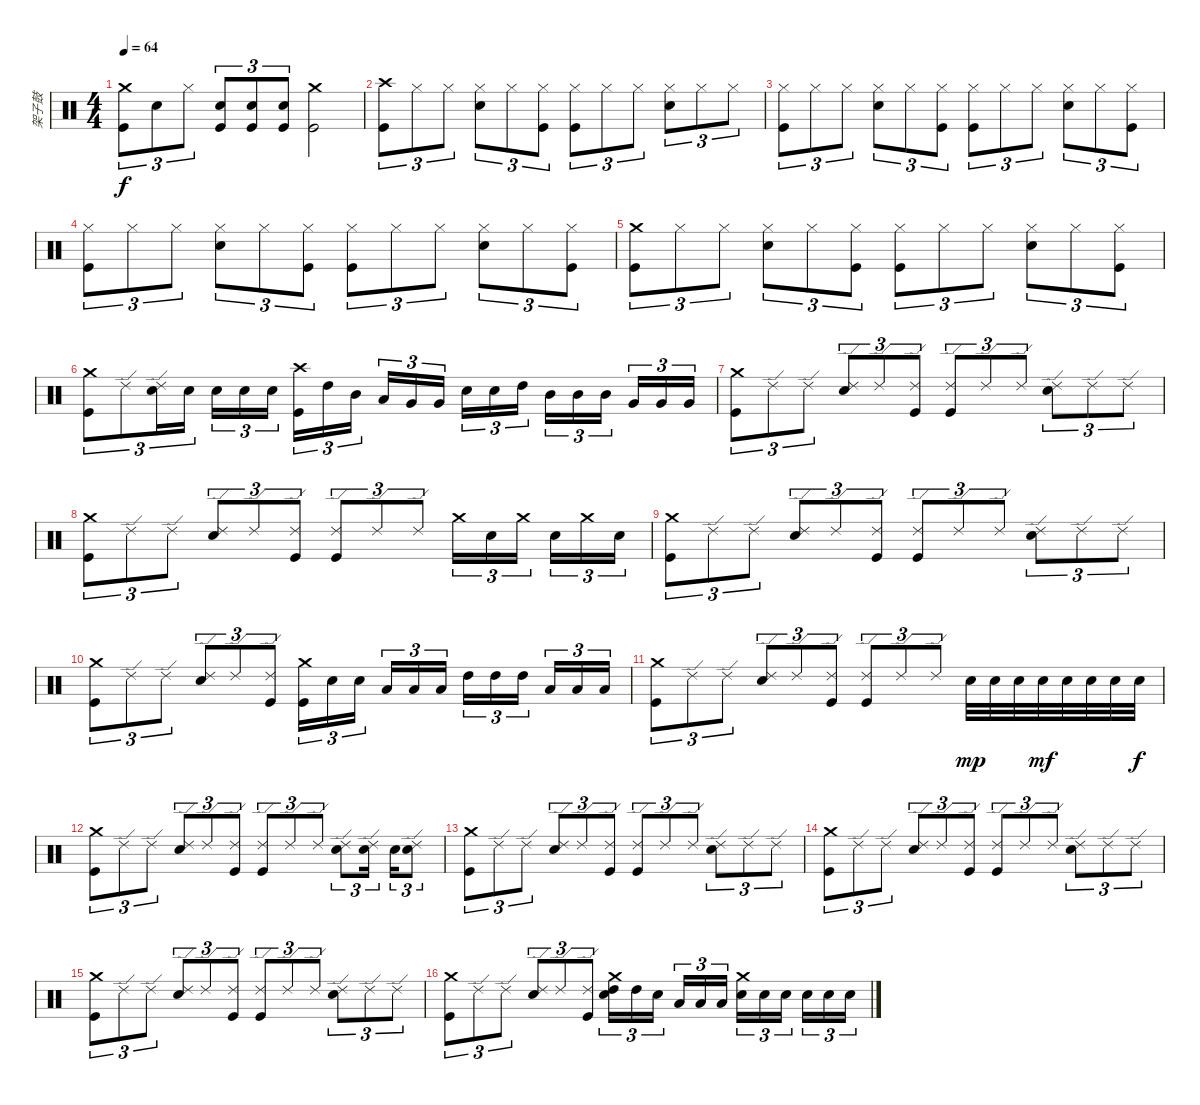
\track ("架子鼓" "架子鼓") {instrument percussion}
\staff {score}
\articulation defaults
\ts (4 4)
\tempo 64
\clef neutral
\ks c
("Kick (hit)" "Crash medium (hit)").8{tu (3 2) dy f} "Electric Snare (hit)".8{tu (3 2)} "Hi-Hat (closed)".8{tu (3 2)} ("Kick (hit)" "Electric Snare (hit)").8{tu (3 2)} ("Kick (hit)" "Electric Snare (hit)").8{tu (3 2)} ("Kick (hit)" "Electric Snare (hit)").8{tu (3 2)} ("Crash medium (hit)" "Kick (hit)").2 |
("Kick (hit)" "Crash high (hit)").8{tu (3 2)} "Hi-Hat (closed)".8{tu (3 2)} "Hi-Hat (closed)".8{tu (3 2)} ("Electric Snare (hit)" "Hi-Hat (closed)").8{tu (3 2)} "Hi-Hat (closed)".8{tu (3 2)} ("Kick (hit)" "Hi-Hat (closed)").8{tu (3 2)} ("Hi-Hat (closed)" "Kick (hit)").8{tu (3 2)} "Hi-Hat (closed)".8{tu (3 2)} "Hi-Hat (closed)".8{tu (3 2)} ("Hi-Hat (closed)" "Electric Snare (hit)").8{tu (3 2)} "Hi-Hat (closed)".8{tu (3 2)} "Hi-Hat (closed)".8{tu (3 2)} |
("Kick (hit)" "Hi-Hat (closed)").8{tu (3 2)} "Hi-Hat (closed)".8{tu (3 2)} "Hi-Hat (closed)".8{tu (3 2)} ("Electric Snare (hit)" "Hi-Hat (closed)").8{tu (3 2)} "Hi-Hat (closed)".8{tu (3 2)} ("Kick (hit)" "Hi-Hat (closed)").8{tu (3 2)} ("Kick (hit)" "Hi-Hat (closed)").8{tu (3 2)} "Hi-Hat (closed)".8{tu (3 2)} "Hi-Hat (closed)".8{tu (3 2)} ("Electric Snare (hit)" "Hi-Hat (closed)").8{tu (3 2)} "Hi-Hat (closed)".8{tu (3 2)} ("Kick (hit)" "Hi-Hat (closed)").8{tu (3 2)} |
("Kick (hit)" "Hi-Hat (closed)").8{tu (3 2)} "Hi-Hat (closed)".8{tu (3 2)} "Hi-Hat (closed)".8{tu (3 2)} ("Electric Snare (hit)" "Hi-Hat (closed)").8{tu (3 2)} "Hi-Hat (closed)".8{tu (3 2)} ("Kick (hit)" "Hi-Hat (closed)").8{tu (3 2)} ("Kick (hit)" "Hi-Hat (closed)").8{tu (3 2)} "Hi-Hat (closed)".8{tu (3 2)} "Hi-Hat (closed)".8{tu (3 2)} ("Electric Snare (hit)" "Hi-Hat (closed)").8{tu (3 2)} "Hi-Hat (closed)".8{tu (3 2)} ("Kick (hit)" "Hi-Hat (closed)").8{tu (3 2)} |
("Kick (hit)" "Crash medium (hit)").8{tu (3 2)} "Hi-Hat (closed)".8{tu (3 2)} "Hi-Hat (closed)".8{tu (3 2)} ("Electric Snare (hit)" "Hi-Hat (closed)").8{tu (3 2)} "Hi-Hat (closed)".8{tu (3 2)} ("Kick (hit)" "Hi-Hat (closed)").8{tu (3 2)} ("Kick (hit)" "Hi-Hat (closed)").8{tu (3 2)} "Hi-Hat (closed)".8{tu (3 2)} "Hi-Hat (closed)".8{tu (3 2)} ("Electric Snare (hit)" "Hi-Hat (closed)").8{tu (3 2)} "Hi-Hat (closed)".8{tu (3 2)} ("Kick (hit)" "Hi-Hat (closed)").8{tu (3 2)} |
("Kick (hit)" "Crash medium (hit)").8{tu (3 2)} "Ride (edge) 2".8{tu (3 2)} ("Electric Snare (hit)" "Ride (edge) 2").16{tu (3 2)} "Electric Snare (hit)".16{tu (3 2)} "Electric Snare (hit)".16{tu (3 2)} "Electric Snare (hit)".16{tu (3 2)} "Electric Snare (hit)".16{tu (3 2)} ("Kick (hit)" "Crash high (hit)").16{tu (3 2)} "High Tom (hit)".16{tu (3 2)} "Mid Tom (hit)".16{tu (3 2)} "Low Tom (hit)".16{tu (3 2)} "Very Low Tom (hit)".16{tu (3 2)} "Very Low Tom (hit)".16{tu (3 2)} "Electric Snare (hit)".16{tu (3 2)} "Electric Snare (hit)".16{tu (3 2)} "High Tom (hit)".16{tu (3 2)} "Mid Tom (hit)".16{tu (3 2)} "Mid Tom (hit)".16{tu (3 2)} "Mid Tom (hit)".16{tu (3 2)} "Very Low Tom (hit)".16{tu (3 2)} "Very Low Tom (hit)".16{tu (3 2)} "Very Low Tom (hit)".16{tu (3 2)} |
("Kick (hit)" "Crash medium (hit)").8{tu (3 2)} "Ride (edge) 2".8{tu (3 2)} "Ride (edge) 2".8{tu (3 2)} ("Electric Snare (hit)" "Ride (edge) 2").8{tu (3 2)} "Ride (edge) 2".8{tu (3 2)} ("Ride (edge) 2" "Kick (hit)").8{tu (3 2)} ("Kick (hit)" "Ride (edge) 2").8{tu (3 2)} "Ride (edge) 2".8{tu (3 2)} "Ride (edge) 2".8{tu (3 2)} ("Ride (edge) 2" "Electric Snare (hit)").8{tu (3 2)} "Ride (edge) 2".8{tu (3 2)} "Ride (edge) 2".8{tu (3 2)} |
("Kick (hit)" "Crash medium (hit)").8{tu (3 2)} "Ride (edge) 2".8{tu (3 2)} "Ride (edge) 2".8{tu (3 2)} ("Electric Snare (hit)" "Ride (edge) 2").8{tu (3 2)} "Ride (edge) 2".8{tu (3 2)} ("Ride (edge) 2" "Kick (hit)").8{tu (3 2)} ("Kick (hit)" "Ride (edge) 2").8{tu (3 2)} "Ride (edge) 2".8{tu (3 2)} "Ride (edge) 2".8{tu (3 2)} "Crash medium (hit)".16{tu (3 2)} "Electric Snare (hit)".16{tu (3 2)} "Crash medium (hit)".16{tu (3 2)} "Electric Snare (hit)".16{tu (3 2)} "Crash medium (hit)".16{tu (3 2)} "Electric Snare (hit)".16{tu (3 2)} |
("Kick (hit)" "Crash medium (hit)").8{tu (3 2)} "Ride (edge) 2".8{tu (3 2)} "Ride (edge) 2".8{tu (3 2)} ("Electric Snare (hit)" "Ride (edge) 2").8{tu (3 2)} "Ride (edge) 2".8{tu (3 2)} ("Ride (edge) 2" "Kick (hit)").8{tu (3 2)} ("Kick (hit)" "Ride (edge) 2").8{tu (3 2)} "Ride (edge) 2".8{tu (3 2)} "Ride (edge) 2".8{tu (3 2)} ("Ride (edge) 2" "Electric Snare (hit)").8{tu (3 2)} "Ride (edge) 2".8{tu (3 2)} "Ride (edge) 2".8{tu (3 2)} |
("Kick (hit)" "Crash medium (hit)").8{tu (3 2)} "Ride (edge) 2".8{tu (3 2)} "Ride (edge) 2".8{tu (3 2)} ("Electric Snare (hit)" "Ride (edge) 2").8{tu (3 2)} "Ride (edge) 2".8{tu (3 2)} ("Ride (edge) 2" "Kick (hit)").8{tu (3 2)} ("Kick (hit)" "Crash medium (hit)").16{tu (3 2)} "Electric Snare (hit)".16{tu (3 2)} "Electric Snare (hit)".16{tu (3 2)} "Low Tom (hit)".16{tu (3 2)} "Low Tom (hit)".16{tu (3 2)} "Low Tom (hit)".16{tu (3 2)} "High Tom (hit)".16{tu (3 2)} "High Tom (hit)".16{tu (3 2)} "High Tom (hit)".16{tu (3 2)} "Low Tom (hit)".16{tu (3 2)} "Low Tom (hit)".16{tu (3 2)} "Low Tom (hit)".16{tu (3 2)} |
("Kick (hit)" "Crash medium (hit)").8{tu (3 2)} "Ride (edge) 2".8{tu (3 2)} "Ride (edge) 2".8{tu (3 2)} ("Electric Snare (hit)" "Ride (edge) 2").8{tu (3 2)} "Ride (edge) 2".8{tu (3 2)} ("Ride (edge) 2" "Kick (hit)").8{tu (3 2)} ("Kick (hit)" "Ride (edge) 2").8{tu (3 2)} "Ride (edge) 2".8{tu (3 2)} "Ride (edge) 2".8{tu (3 2)} "Electric Snare (hit)".32{dy mp} "Electric Snare (hit)".32 "Electric Snare (hit)".32 "Electric Snare (hit)".32{dy mf} "Electric Snare (hit)".32 "Electric Snare (hit)".32 "Electric Snare (hit)".32 "Electric Snare (hit)".32{dy f} |
("Kick (hit)" "Crash medium (hit)").8{tu (3 2)} "Ride (edge) 2".8{tu (3 2)} "Ride (edge) 2".8{tu (3 2)} ("Electric Snare (hit)" "Ride (edge) 2").8{tu (3 2)} "Ride (edge) 2".8{tu (3 2)} ("Ride (edge) 2" "Kick (hit)").8{tu (3 2)} ("Kick (hit)" "Ride (edge) 2").8{tu (3 2)} "Ride (edge) 2".8{tu (3 2)} "Ride (edge) 2".8{tu (3 2)} ("Ride (edge) 2" "Electric Snare (hit)").8{tu (3 2)} ("Ride (edge) 2" "Electric Snare (hit)").16{tu (3 2)} "Electric Snare (hit)".16{tu (3 2)} ("Ride (edge) 2" "Electric Snare (hit)").8{tu (3 2)} |
("Kick (hit)" "Crash medium (hit)").8{tu (3 2)} "Ride (edge) 2".8{tu (3 2)} "Ride (edge) 2".8{tu (3 2)} ("Electric Snare (hit)" "Ride (edge) 2").8{tu (3 2)} "Ride (edge) 2".8{tu (3 2)} ("Ride (edge) 2" "Kick (hit)").8{tu (3 2)} ("Kick (hit)" "Ride (edge) 2").8{tu (3 2)} "Ride (edge) 2".8{tu (3 2)} "Ride (edge) 2".8{tu (3 2)} ("Ride (edge) 2" "Electric Snare (hit)").8{tu (3 2)} "Ride (edge) 2".8{tu (3 2)} "Ride (edge) 2".8{tu (3 2)} |
("Kick (hit)" "Crash medium (hit)").8{tu (3 2)} "Ride (edge) 2".8{tu (3 2)} "Ride (edge) 2".8{tu (3 2)} ("Electric Snare (hit)" "Ride (edge) 2").8{tu (3 2)} "Ride (edge) 2".8{tu (3 2)} ("Ride (edge) 2" "Kick (hit)").8{tu (3 2)} ("Kick (hit)" "Ride (edge) 2").8{tu (3 2)} "Ride (edge) 2".8{tu (3 2)} "Ride (edge) 2".8{tu (3 2)} ("Ride (edge) 2" "Electric Snare (hit)").8{tu (3 2)} "Ride (edge) 2".8{tu (3 2)} "Ride (edge) 2".8{tu (3 2)} |
("Kick (hit)" "Crash medium (hit)").8{tu (3 2)} "Ride (edge) 2".8{tu (3 2)} "Ride (edge) 2".8{tu (3 2)} ("Electric Snare (hit)" "Ride (edge) 2").8{tu (3 2)} "Ride (edge) 2".8{tu (3 2)} ("Ride (edge) 2" "Kick (hit)").8{tu (3 2)} ("Kick (hit)" "Ride (edge) 2").8{tu (3 2)} "Ride (edge) 2".8{tu (3 2)} "Ride (edge) 2".8{tu (3 2)} ("Ride (edge) 2" "Electric Snare (hit)").8{tu (3 2)} "Ride (edge) 2".8{tu (3 2)} "Ride (edge) 2".8{tu (3 2)} |
("Kick (hit)" "Crash medium (hit)").8{tu (3 2)} "Ride (edge) 2".8{tu (3 2)} "Ride (edge) 2".8{tu (3 2)} ("Electric Snare (hit)" "Ride (edge) 2").8{tu (3 2)} "Ride (edge) 2".8{tu (3 2)} ("Ride (edge) 2" "Kick (hit)").8{tu (3 2)} ("High Tom (hit)" "Electric Snare (hit)" "Crash medium (hit)").16{tu (3 2)} "High Tom (hit)".16{tu (3 2)} "Electric Snare (hit)".16{tu (3 2)} "Low Tom (hit)".16{tu (3 2)} "Low Tom (hit)".16{tu (3 2)} "Low Tom (hit)".16{tu (3 2)} ("Crash medium (hit)" "Electric Snare (hit)").16{tu (3 2)} "Electric Snare (hit)".16{tu (3 2)} "Electric Snare (hit)".16{tu (3 2)} "Electric Snare (hit)".16{tu (3 2)} "Electric Snare (hit)".16{tu (3 2)} "Electric Snare (hit)".16{tu (3 2)}
